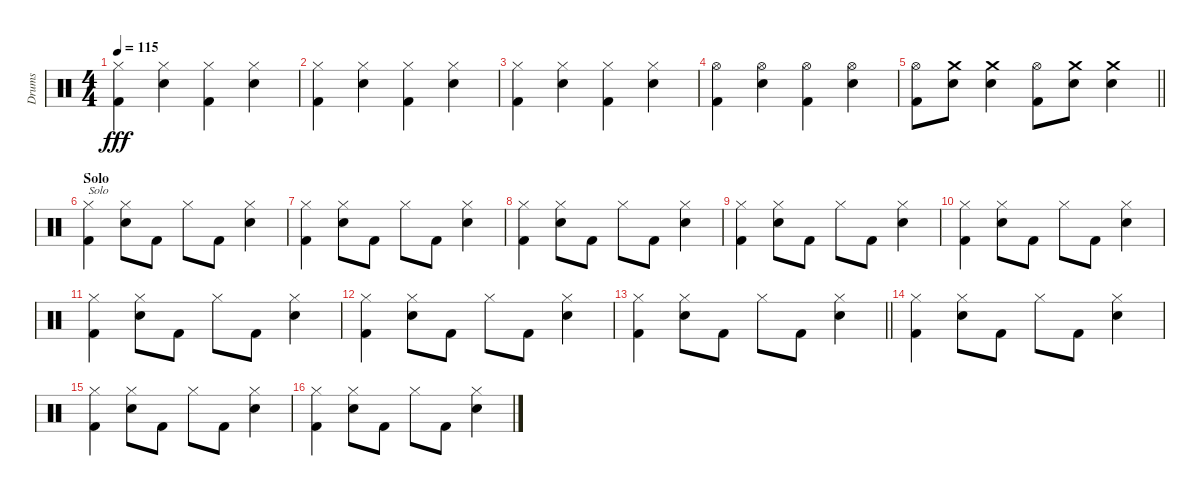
\track ("Drums" "Drums") {instrument percussion}
\staff {score}
\articulation defaults
\ts (4 4)
\tempo 115
\clef neutral
\ks c
("Hi-Hat (closed)" "Kick (hit) 2").4{dy fff} ("Hi-Hat (closed)" "Snare (hit) 2").4 ("Hi-Hat (closed)" "Kick (hit) 2").4 ("Hi-Hat (closed)" "Snare (hit) 2").4 |
("Hi-Hat (closed)" "Kick (hit) 2").4 ("Hi-Hat (closed)" "Snare (hit) 2").4 ("Hi-Hat (closed)" "Kick (hit) 2").4 ("Hi-Hat (closed)" "Snare (hit) 2").4 |
("Hi-Hat (closed)" "Kick (hit) 2").4 ("Hi-Hat (closed)" "Snare (hit) 2").4 ("Hi-Hat (closed)" "Kick (hit) 2").4 ("Hi-Hat (closed)" "Snare (hit) 2").4 |
("Hi-Hat (open)" "Kick (hit) 2").4 ("Hi-Hat (open)" "Snare (hit) 2").4 ("Hi-Hat (open)" "Kick (hit) 2").4 ("Hi-Hat (open)" "Snare (hit) 2").4 |
\barLineRight lightlight
("Hi-Hat (open)" "Kick (hit) 2").8 ("Crash medium (hit)" "Snare (hit) 2").8 ("Crash medium (hit)" "Snare (hit) 2").4 ("Hi-Hat (open)" "Kick (hit) 2").8 ("Crash medium (hit)" "Snare (hit) 2").8 ("Crash medium (hit)" "Snare (hit) 2").4 |
\section ("" "Solo")
("Hi-Hat (closed)" "Kick (hit) 2").4{txt "Solo"} ("Hi-Hat (closed)" "Snare (hit) 2").8 "Kick (hit) 2".8 "Hi-Hat (closed)".8 "Kick (hit) 2".8 ("Hi-Hat (closed)" "Snare (hit) 2").4 |
("Hi-Hat (closed)" "Kick (hit) 2").4 ("Hi-Hat (closed)" "Snare (hit) 2").8 "Kick (hit) 2".8 "Hi-Hat (closed)".8 "Kick (hit) 2".8 ("Hi-Hat (closed)" "Snare (hit) 2").4 |
("Hi-Hat (closed)" "Kick (hit) 2").4 ("Hi-Hat (closed)" "Snare (hit) 2").8 "Kick (hit) 2".8 "Hi-Hat (closed)".8 "Kick (hit) 2".8 ("Hi-Hat (closed)" "Snare (hit) 2").4 |
("Hi-Hat (closed)" "Kick (hit) 2").4 ("Hi-Hat (closed)" "Snare (hit) 2").8 "Kick (hit) 2".8 "Hi-Hat (closed)".8 "Kick (hit) 2".8 ("Hi-Hat (closed)" "Snare (hit) 2").4 |
("Hi-Hat (closed)" "Kick (hit) 2").4 ("Hi-Hat (closed)" "Snare (hit) 2").8 "Kick (hit) 2".8 "Hi-Hat (closed)".8 "Kick (hit) 2".8 ("Hi-Hat (closed)" "Snare (hit) 2").4 |
("Hi-Hat (closed)" "Kick (hit) 2").4 ("Hi-Hat (closed)" "Snare (hit) 2").8 "Kick (hit) 2".8 "Hi-Hat (closed)".8 "Kick (hit) 2".8 ("Hi-Hat (closed)" "Snare (hit) 2").4 |
("Hi-Hat (closed)" "Kick (hit) 2").4 ("Hi-Hat (closed)" "Snare (hit) 2").8 "Kick (hit) 2".8 "Hi-Hat (closed)".8 "Kick (hit) 2".8 ("Hi-Hat (closed)" "Snare (hit) 2").4 |
\barLineRight lightlight
("Hi-Hat (closed)" "Kick (hit) 2").4 ("Hi-Hat (closed)" "Snare (hit) 2").8 "Kick (hit) 2".8 "Hi-Hat (closed)".8 "Kick (hit) 2".8 ("Hi-Hat (closed)" "Snare (hit) 2").4 |
("Hi-Hat (closed)" "Kick (hit) 2").4 ("Hi-Hat (closed)" "Snare (hit) 2").8 "Kick (hit) 2".8 "Hi-Hat (closed)".8 "Kick (hit) 2".8 ("Hi-Hat (closed)" "Snare (hit) 2").4 |
("Hi-Hat (closed)" "Kick (hit) 2").4 ("Hi-Hat (closed)" "Snare (hit) 2").8 "Kick (hit) 2".8 "Hi-Hat (closed)".8 "Kick (hit) 2".8 ("Hi-Hat (closed)" "Snare (hit) 2").4 |
("Hi-Hat (closed)" "Kick (hit) 2").4 ("Hi-Hat (closed)" "Snare (hit) 2").8 "Kick (hit) 2".8 "Hi-Hat (closed)".8 "Kick (hit) 2".8 ("Hi-Hat (closed)" "Snare (hit) 2").4
